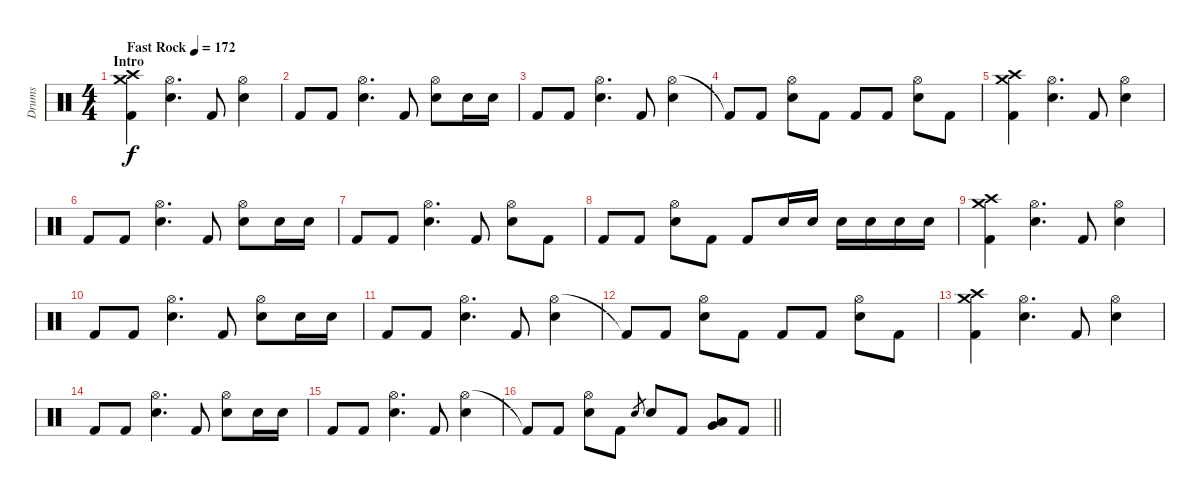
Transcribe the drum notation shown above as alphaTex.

\track ("Drums" "Drums") {instrument percussion}
\staff {score}
\articulation defaults
\ts (4 4)
\section ("" "Intro")
\tempo (172 "Fast Rock")
\clef neutral
\ks c
("Crash medium (hit)" "Crash high (hit)" "Kick (hit) 2").4{dy f} ("Hi-Hat (open)" "Electric Snare (hit)").4{d} "Kick (hit) 2".8 ("Hi-Hat (open)" "Electric Snare (hit)").4 |
"Kick (hit) 2".8 "Kick (hit) 2".8 ("Hi-Hat (open)" "Electric Snare (hit)").4{d} "Kick (hit) 2".8 ("Hi-Hat (open)" "Electric Snare (hit)").8 "Electric Snare (hit)".16 "Electric Snare (hit)".16 |
"Kick (hit) 2".8 "Kick (hit) 2".8 ("Hi-Hat (open)" "Electric Snare (hit)").4{d} "Kick (hit) 2".8 ("Hi-Hat (open)" "Electric Snare (hit)").4 |
"Kick (hit) 2"{t}.8 "Kick (hit) 2".8 ("Hi-Hat (open)" "Electric Snare (hit)").8 "Kick (hit) 2".8 "Kick (hit) 2".8 "Kick (hit) 2".8 ("Hi-Hat (open)" "Electric Snare (hit)").8 "Kick (hit) 2".8 |
("Crash medium (hit)" "Crash high (hit)" "Kick (hit) 2").4 ("Hi-Hat (open)" "Electric Snare (hit)").4{d} "Kick (hit) 2".8 ("Hi-Hat (open)" "Electric Snare (hit)").4 |
"Kick (hit) 2".8 "Kick (hit) 2".8 ("Hi-Hat (open)" "Electric Snare (hit)").4{d} "Kick (hit) 2".8 ("Hi-Hat (open)" "Electric Snare (hit)").8 "Electric Snare (hit)".16 "Electric Snare (hit)".16 |
"Kick (hit) 2".8 "Kick (hit) 2".8 ("Hi-Hat (open)" "Electric Snare (hit)").4{d} "Kick (hit) 2".8 ("Hi-Hat (open)" "Electric Snare (hit)").8 "Kick (hit) 2".8 |
"Kick (hit) 2".8 "Kick (hit) 2".8 ("Hi-Hat (open)" "Electric Snare (hit)").8 "Kick (hit) 2".8 "Kick (hit) 2".8 "Electric Snare (hit)".16 "Electric Snare (hit)".16 "Electric Snare (hit)".16 "Electric Snare (hit)".16 "Electric Snare (hit)".16 "Electric Snare (hit)".16 |
("Crash medium (hit)" "Crash high (hit)" "Kick (hit) 2").4 ("Hi-Hat (open)" "Electric Snare (hit)").4{d} "Kick (hit) 2".8 ("Hi-Hat (open)" "Electric Snare (hit)").4 |
"Kick (hit) 2".8 "Kick (hit) 2".8 ("Hi-Hat (open)" "Electric Snare (hit)").4{d} "Kick (hit) 2".8 ("Hi-Hat (open)" "Electric Snare (hit)").8 "Electric Snare (hit)".16 "Electric Snare (hit)".16 |
"Kick (hit) 2".8 "Kick (hit) 2".8 ("Hi-Hat (open)" "Electric Snare (hit)").4{d} "Kick (hit) 2".8 ("Hi-Hat (open)" "Electric Snare (hit)").4 |
"Kick (hit) 2"{t}.8 "Kick (hit) 2".8 ("Hi-Hat (open)" "Electric Snare (hit)").8 "Kick (hit) 2".8 "Kick (hit) 2".8 "Kick (hit) 2".8 ("Hi-Hat (open)" "Electric Snare (hit)").8 "Kick (hit) 2".8 |
("Crash medium (hit)" "Crash high (hit)" "Kick (hit) 2").4 ("Hi-Hat (open)" "Electric Snare (hit)").4{d} "Kick (hit) 2".8 ("Hi-Hat (open)" "Electric Snare (hit)").4 |
"Kick (hit) 2".8 "Kick (hit) 2".8 ("Hi-Hat (open)" "Electric Snare (hit)").4{d} "Kick (hit) 2".8 ("Hi-Hat (open)" "Electric Snare (hit)").8 "Electric Snare (hit)".16 "Electric Snare (hit)".16 |
"Kick (hit) 2".8 "Kick (hit) 2".8 ("Hi-Hat (open)" "Electric Snare (hit)").4{d} "Kick (hit) 2".8 ("Hi-Hat (open)" "Electric Snare (hit)").4 |
\barLineRight lightlight "Kick (hit) 2"{t}.8 "Kick (hit) 2".8
("Hi-Hat (open)" "Electric Snare (hit)").8 "Kick (hit) 2".8 "Electric Snare (hit)".8{gr} "Electric Snare (hit)".8 "Kick (hit) 2".8 ("Low Tom (hit)" "Very Low Tom (hit)").8 "Kick (hit) 2".8
